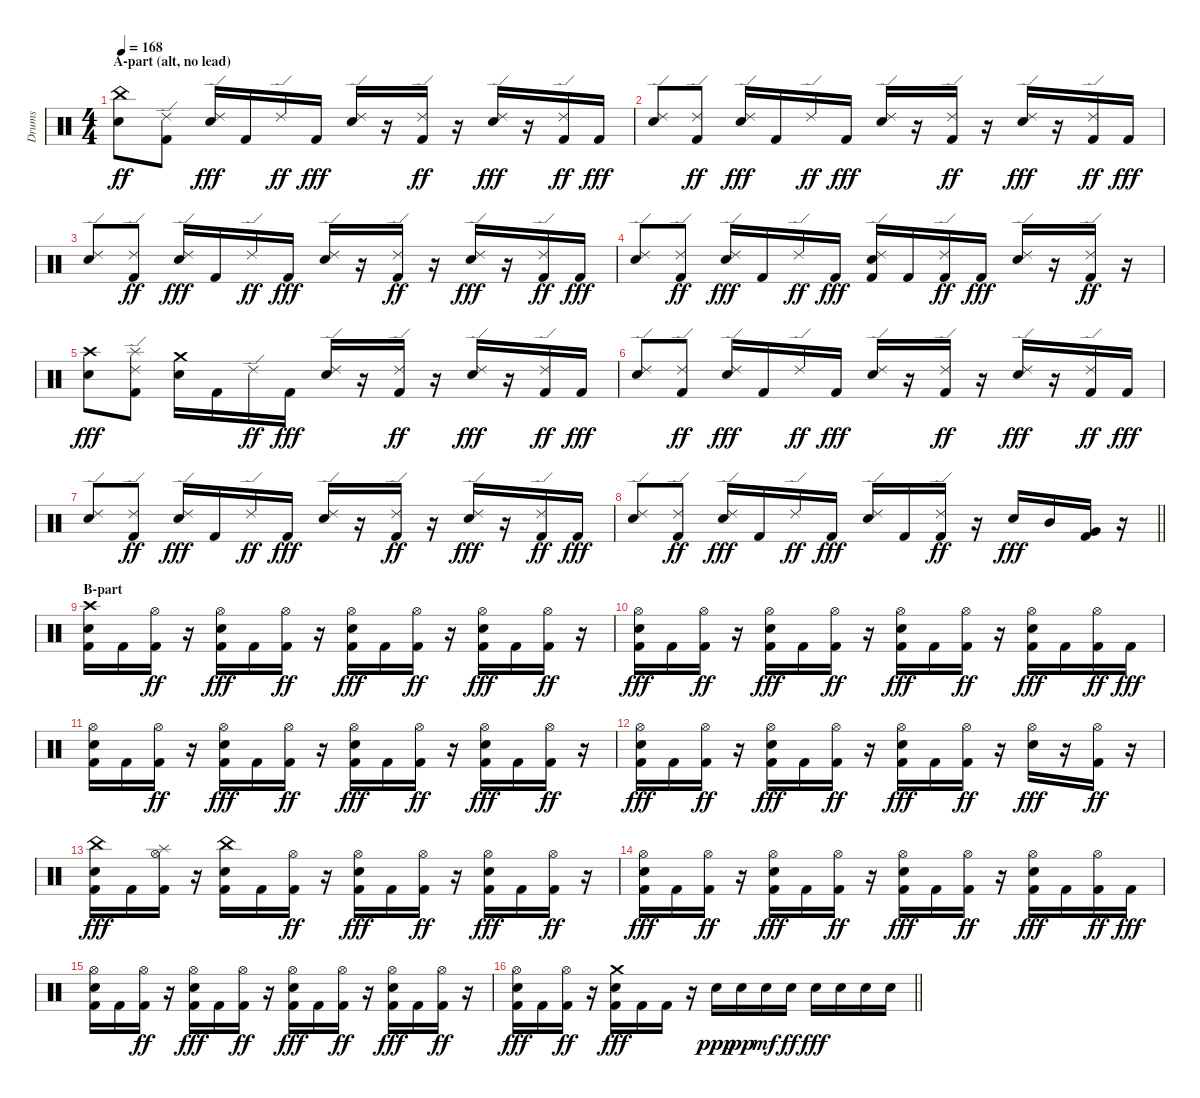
\track ("Drums" "Drums") {instrument percussion}
\staff {score}
\articulation defaults
\ts (4 4)
\section ("" "A-part (alt, no lead)")
\tempo 168
\clef neutral
\ks c
("Snare (hit) 2" "China (hit)").8{dy ff} ("Kick (hit) 2" "Ride (edge) 2").8 ("Snare (hit) 2" "Ride (edge) 2").16{dy fff} "Kick (hit) 2".16 "Ride (edge) 2".16{dy ff} "Kick (hit) 2".16{dy fff} ("Snare (hit) 2" "Ride (edge) 2").16 r.16 ("Kick (hit) 2" "Ride (edge) 2").16{dy ff} r.16 ("Snare (hit) 2" "Ride (edge) 2").16{dy fff} r.16 ("Kick (hit) 2" "Ride (edge) 2").16{dy ff} "Kick (hit) 2".16{dy fff} |
("Snare (hit) 2" "Ride (edge) 2").8 ("Kick (hit) 2" "Ride (edge) 2").8{dy ff} ("Snare (hit) 2" "Ride (edge) 2").16{dy fff} "Kick (hit) 2".16 "Ride (edge) 2".16{dy ff} "Kick (hit) 2".16{dy fff} ("Snare (hit) 2" "Ride (edge) 2").16 r.16 ("Kick (hit) 2" "Ride (edge) 2").16{dy ff} r.16 ("Snare (hit) 2" "Ride (edge) 2").16{dy fff} r.16 ("Kick (hit) 2" "Ride (edge) 2").16{dy ff} "Kick (hit) 2".16{dy fff} |
("Snare (hit) 2" "Ride (edge) 2").8 ("Kick (hit) 2" "Ride (edge) 2").8{dy ff} ("Snare (hit) 2" "Ride (edge) 2").16{dy fff} "Kick (hit) 2".16 "Ride (edge) 2".16{dy ff} "Kick (hit) 2".16{dy fff} ("Snare (hit) 2" "Ride (edge) 2").16 r.16 ("Kick (hit) 2" "Ride (edge) 2").16{dy ff} r.16 ("Snare (hit) 2" "Ride (edge) 2").16{dy fff} r.16 ("Kick (hit) 2" "Ride (edge) 2").16{dy ff} "Kick (hit) 2".16{dy fff} |
("Snare (hit) 2" "Ride (edge) 2").8 ("Kick (hit) 2" "Ride (edge) 2").8{dy ff} ("Snare (hit) 2" "Ride (edge) 2").16{dy fff} "Kick (hit) 2".16 "Ride (edge) 2".16{dy ff} "Kick (hit) 2".16{dy fff} ("Kick (hit) 2" "Snare (hit) 2" "Ride (edge) 2").16 "Kick (hit) 2".16 ("Kick (hit) 2" "Ride (edge) 2").16{dy ff} "Kick (hit) 2".16{dy fff} ("Snare (hit) 2" "Ride (edge) 2").16 r.16 ("Kick (hit) 2" "Ride (edge) 2").16{dy ff} r.16 |
("Snare (hit) 2" "Crash high (hit)").8{dy fff} ("Kick (hit) 2" "Ride (edge) 2" "Splash (hit)").8 ("Snare (hit) 2" "Crash medium (hit)").16 "Kick (hit) 2".16 "Ride (edge) 2".16{dy ff} "Kick (hit) 2".16{dy fff} ("Snare (hit) 2" "Ride (edge) 2").16 r.16 ("Kick (hit) 2" "Ride (edge) 2").16{dy ff} r.16 ("Snare (hit) 2" "Ride (edge) 2").16{dy fff} r.16 ("Kick (hit) 2" "Ride (edge) 2").16{dy ff} "Kick (hit) 2".16{dy fff} |
("Snare (hit) 2" "Ride (edge) 2").8 ("Kick (hit) 2" "Ride (edge) 2").8{dy ff} ("Snare (hit) 2" "Ride (edge) 2").16{dy fff} "Kick (hit) 2".16 "Ride (edge) 2".16{dy ff} "Kick (hit) 2".16{dy fff} ("Snare (hit) 2" "Ride (edge) 2").16 r.16 ("Kick (hit) 2" "Ride (edge) 2").16{dy ff} r.16 ("Snare (hit) 2" "Ride (edge) 2").16{dy fff} r.16 ("Kick (hit) 2" "Ride (edge) 2").16{dy ff} "Kick (hit) 2".16{dy fff} |
("Snare (hit) 2" "Ride (edge) 2").8 ("Kick (hit) 2" "Ride (edge) 2").8{dy ff} ("Snare (hit) 2" "Ride (edge) 2").16{dy fff} "Kick (hit) 2".16 "Ride (edge) 2".16{dy ff} "Kick (hit) 2".16{dy fff} ("Snare (hit) 2" "Ride (edge) 2").16 r.16 ("Kick (hit) 2" "Ride (edge) 2").16{dy ff} r.16 ("Snare (hit) 2" "Ride (edge) 2").16{dy fff} r.16 ("Kick (hit) 2" "Ride (edge) 2").16{dy ff} "Kick (hit) 2".16{dy fff} |
\barLineRight lightlight
("Snare (hit) 2" "Ride (edge) 2").8 ("Kick (hit) 2" "Ride (edge) 2").8{dy ff} ("Snare (hit) 2" "Ride (edge) 2").16{dy fff} "Kick (hit) 2".16 "Ride (edge) 2".16{dy ff} "Kick (hit) 2".16{dy fff} ("Snare (hit) 2" "Ride (edge) 2").16 "Kick (hit) 2".16 ("Kick (hit) 2" "Ride (edge) 2").16{dy ff} r.16 "Snare (hit) 2".16{dy fff} "Mid Tom (hit)".16 ("Kick (hit) 2" "Very Low Tom (hit)").16 r.16 |
\section ("" "B-part")
("Kick (hit) 2" "Snare (hit) 2" "Crash high (hit)").16 "Kick (hit) 2".16 ("Kick (hit) 2" "Hi-Hat (open)").16{dy ff} r.16 ("Kick (hit) 2" "Snare (hit) 2" "Hi-Hat (open)").16{dy fff} "Kick (hit) 2".16 ("Kick (hit) 2" "Hi-Hat (open)").16{dy ff} r.16 ("Kick (hit) 2" "Snare (hit) 2" "Hi-Hat (open)").16{dy fff} "Kick (hit) 2".16 ("Kick (hit) 2" "Hi-Hat (open)").16{dy ff} r.16 ("Kick (hit) 2" "Snare (hit) 2" "Hi-Hat (open)").16{dy fff} "Kick (hit) 2".16 ("Kick (hit) 2" "Hi-Hat (open)").16{dy ff} r.16 |
("Kick (hit) 2" "Snare (hit) 2" "Hi-Hat (open)").16{dy fff} "Kick (hit) 2".16 ("Kick (hit) 2" "Hi-Hat (open)").16{dy ff} r.16 ("Kick (hit) 2" "Snare (hit) 2" "Hi-Hat (open)").16{dy fff} "Kick (hit) 2".16 ("Kick (hit) 2" "Hi-Hat (open)").16{dy ff} r.16 ("Kick (hit) 2" "Snare (hit) 2" "Hi-Hat (open)").16{dy fff} "Kick (hit) 2".16 ("Kick (hit) 2" "Hi-Hat (open)").16{dy ff} r.16 ("Kick (hit) 2" "Snare (hit) 2" "Hi-Hat (open)").16{dy fff} "Kick (hit) 2".16 ("Kick (hit) 2" "Hi-Hat (open)").16{dy ff} "Kick (hit) 2".16{dy fff} |
("Kick (hit) 2" "Snare (hit) 2" "Hi-Hat (open)").16 "Kick (hit) 2".16 ("Kick (hit) 2" "Hi-Hat (open)").16{dy ff} r.16 ("Kick (hit) 2" "Snare (hit) 2" "Hi-Hat (open)").16{dy fff} "Kick (hit) 2".16 ("Kick (hit) 2" "Hi-Hat (open)").16{dy ff} r.16 ("Kick (hit) 2" "Snare (hit) 2" "Hi-Hat (open)").16{dy fff} "Kick (hit) 2".16 ("Kick (hit) 2" "Hi-Hat (open)").16{dy ff} r.16 ("Kick (hit) 2" "Snare (hit) 2" "Hi-Hat (open)").16{dy fff} "Kick (hit) 2".16 ("Kick (hit) 2" "Hi-Hat (open)").16{dy ff} r.16 |
("Kick (hit) 2" "Snare (hit) 2" "Hi-Hat (open)").16{dy fff} "Kick (hit) 2".16 ("Kick (hit) 2" "Hi-Hat (open)").16{dy ff} r.16 ("Kick (hit) 2" "Snare (hit) 2" "Hi-Hat (open)").16{dy fff} "Kick (hit) 2".16 ("Kick (hit) 2" "Hi-Hat (open)").16{dy ff} r.16 ("Kick (hit) 2" "Snare (hit) 2" "Hi-Hat (open)").16{dy fff} "Kick (hit) 2".16 ("Kick (hit) 2" "Hi-Hat (open)").16{dy ff} r.16 ("Snare (hit) 2" "Hi-Hat (open)").16{dy fff} r.16 ("Kick (hit) 2" "Hi-Hat (open)").16{dy ff} r.16 |
("Kick (hit) 2" "Snare (hit) 2" "China (hit)").16{dy fff} "Kick (hit) 2".16 ("Kick (hit) 2" "Hi-Hat (open)" "Splash (hit)").16 r.16 ("Kick (hit) 2" "Snare (hit) 2" "China (hit)").16 "Kick (hit) 2".16 ("Kick (hit) 2" "Hi-Hat (open)").16{dy ff} r.16 ("Kick (hit) 2" "Snare (hit) 2" "Hi-Hat (open)").16{dy fff} "Kick (hit) 2".16 ("Kick (hit) 2" "Hi-Hat (open)").16{dy ff} r.16 ("Kick (hit) 2" "Snare (hit) 2" "Hi-Hat (open)").16{dy fff} "Kick (hit) 2".16 ("Kick (hit) 2" "Hi-Hat (open)").16{dy ff} r.16 |
("Kick (hit) 2" "Snare (hit) 2" "Hi-Hat (open)").16{dy fff} "Kick (hit) 2".16 ("Kick (hit) 2" "Hi-Hat (open)").16{dy ff} r.16 ("Kick (hit) 2" "Snare (hit) 2" "Hi-Hat (open)").16{dy fff} "Kick (hit) 2".16 ("Kick (hit) 2" "Hi-Hat (open)").16{dy ff} r.16 ("Kick (hit) 2" "Snare (hit) 2" "Hi-Hat (open)").16{dy fff} "Kick (hit) 2".16 ("Kick (hit) 2" "Hi-Hat (open)").16{dy ff} r.16 ("Kick (hit) 2" "Snare (hit) 2" "Hi-Hat (open)").16{dy fff} "Kick (hit) 2".16 ("Kick (hit) 2" "Hi-Hat (open)").16{dy ff} "Kick (hit) 2".16{dy fff} |
("Kick (hit) 2" "Snare (hit) 2" "Hi-Hat (open)").16 "Kick (hit) 2".16 ("Kick (hit) 2" "Hi-Hat (open)").16{dy ff} r.16 ("Kick (hit) 2" "Snare (hit) 2" "Hi-Hat (open)").16{dy fff} "Kick (hit) 2".16 ("Kick (hit) 2" "Hi-Hat (open)").16{dy ff} r.16 ("Kick (hit) 2" "Snare (hit) 2" "Hi-Hat (open)").16{dy fff} "Kick (hit) 2".16 ("Kick (hit) 2" "Hi-Hat (open)").16{dy ff} r.16 ("Kick (hit) 2" "Snare (hit) 2" "Hi-Hat (open)").16{dy fff} "Kick (hit) 2".16 ("Kick (hit) 2" "Hi-Hat (open)").16{dy ff} r.16 |
\barLineRight lightlight
("Kick (hit) 2" "Snare (hit) 2" "Hi-Hat (open)").16{dy fff} "Kick (hit) 2".16 ("Kick (hit) 2" "Hi-Hat (open)").16{dy ff} r.16 ("Kick (hit) 2" "Snare (hit) 2" "Crash medium (hit)").16{dy fff} "Kick (hit) 2".16 "Kick (hit) 2".16 r.16 "Snare (hit) 2".16{dy ppp} "Snare (hit) 2".16{dy pp} "Snare (hit) 2".16{dy mf} "Snare (hit) 2".16{dy ff} "Snare (hit) 2".16{dy fff} "Snare (hit) 2".16 "Snare (hit) 2".16 "Snare (hit) 2".16
